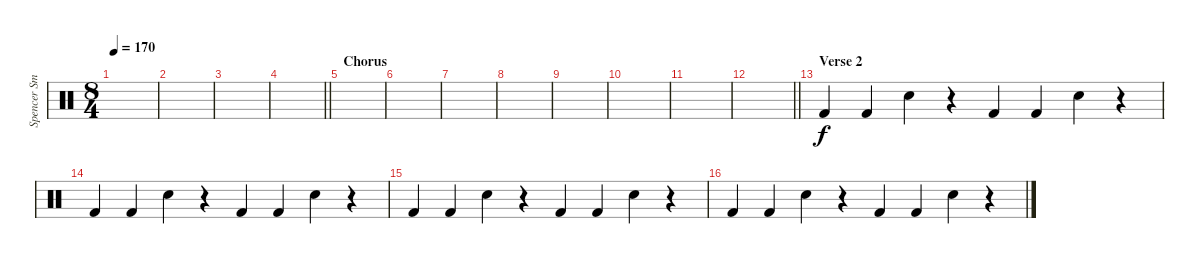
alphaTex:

\track ("Spencer Smith" "Spencer Sm") {instrument percussion}
\staff {score}
\articulation defaults
\ts (8 4)
\tempo 170
\clef neutral
\ks c
|
|
|
\barLineRight lightlight
|
\section ("" "Chorus")
|
|
|
|
|
|
|
\barLineRight lightlight
|
\section ("" "Verse 2")
"Kick (hit) 2".4 "Kick (hit) 2".4 "Snare (hit) 2".4 r.4 "Kick (hit) 2".4 "Kick (hit) 2".4 "Snare (hit) 2".4 r.4 |
"Kick (hit) 2".4 "Kick (hit) 2".4 "Snare (hit) 2".4 r.4 "Kick (hit) 2".4 "Kick (hit) 2".4 "Snare (hit) 2".4 r.4 |
"Kick (hit) 2".4 "Kick (hit) 2".4 "Snare (hit) 2".4 r.4 "Kick (hit) 2".4 "Kick (hit) 2".4 "Snare (hit) 2".4 r.4 |
"Kick (hit) 2".4 "Kick (hit) 2".4 "Snare (hit) 2".4 r.4 "Kick (hit) 2".4 "Kick (hit) 2".4 "Snare (hit) 2".4 r.4
